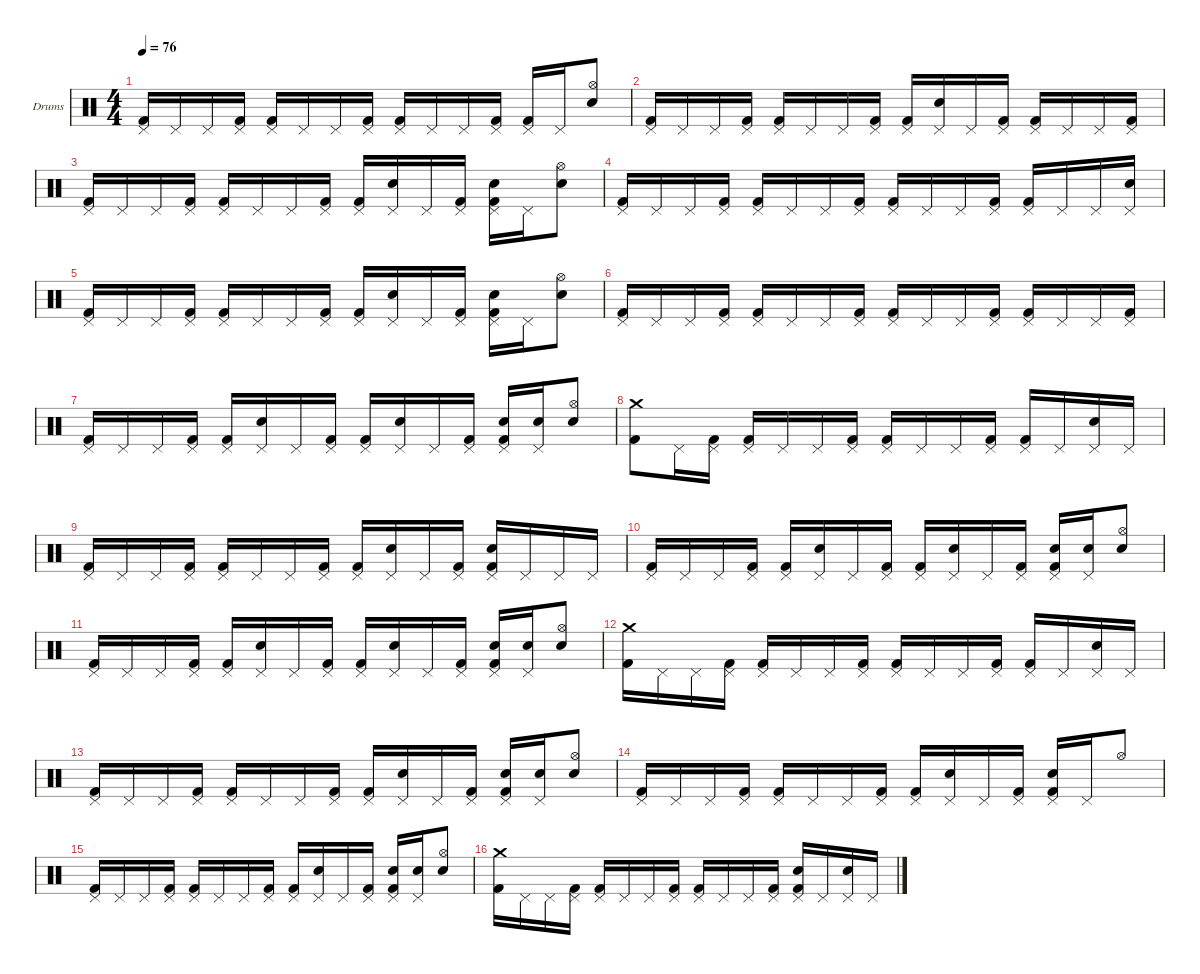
\hideDynamics
\bracketExtendMode nobrackets
\firstSystemTrackNameOrientation horizontal
\otherSystemsTrackNameOrientation horizontal
\track ("Drumkit" "Drums") {instrument percussion}
\staff {score}
\articulation defaults
\ts (4 4)
\tempo 76
\clef neutral
\ks c
("Kick (hit) 2" "Pedal Hi-Hat (hit)").16{dy f beam Up} "Pedal Hi-Hat (hit)".16{beam Up} "Pedal Hi-Hat (hit)".16{beam Up} ("Pedal Hi-Hat (hit)" "Kick (hit) 2").16{beam Up} ("Pedal Hi-Hat (hit)" "Kick (hit) 2").16{beam Up} "Pedal Hi-Hat (hit)".16{beam Up} "Pedal Hi-Hat (hit)".16{beam Up} ("Pedal Hi-Hat (hit)" "Kick (hit) 2").16{beam Up} ("Pedal Hi-Hat (hit)" "Kick (hit) 2").16{beam Up} "Pedal Hi-Hat (hit)".16{beam Up} "Pedal Hi-Hat (hit)".16{beam Up} ("Pedal Hi-Hat (hit)" "Kick (hit) 2").16{beam Up} ("Pedal Hi-Hat (hit)" "Kick (hit) 2").16{beam Up} "Pedal Hi-Hat (hit)".16{beam Up} ("Hi-Hat (open)" "Snare (hit) 2").8{beam Up} |
("Kick (hit) 2" "Pedal Hi-Hat (hit)").16{beam Up} "Pedal Hi-Hat (hit)".16{beam Up} "Pedal Hi-Hat (hit)".16{beam Up} ("Pedal Hi-Hat (hit)" "Kick (hit) 2").16{beam Up} ("Pedal Hi-Hat (hit)" "Kick (hit) 2").16{beam Up} "Pedal Hi-Hat (hit)".16{beam Up} "Pedal Hi-Hat (hit)".16{beam Up} ("Pedal Hi-Hat (hit)" "Kick (hit) 2").16{beam Up} ("Pedal Hi-Hat (hit)" "Kick (hit) 2").16{beam Up} ("Pedal Hi-Hat (hit)" "Snare (hit) 2").16{beam Up} "Pedal Hi-Hat (hit)".16{beam Up} ("Pedal Hi-Hat (hit)" "Kick (hit) 2").16{beam Up} ("Pedal Hi-Hat (hit)" "Kick (hit) 2").16{beam Up} "Pedal Hi-Hat (hit)".16{beam Up} "Pedal Hi-Hat (hit)".16{beam Up} ("Pedal Hi-Hat (hit)" "Kick (hit) 2").16{beam Up} |
("Pedal Hi-Hat (hit)" "Kick (hit) 2").16{beam Up} "Pedal Hi-Hat (hit)".16{beam Up} "Pedal Hi-Hat (hit)".16{beam Up} ("Pedal Hi-Hat (hit)" "Kick (hit) 2").16{beam Up} ("Pedal Hi-Hat (hit)" "Kick (hit) 2").16{beam Up} "Pedal Hi-Hat (hit)".16{beam Up} "Pedal Hi-Hat (hit)".16{beam Up} ("Pedal Hi-Hat (hit)" "Kick (hit) 2").16{beam Up} ("Pedal Hi-Hat (hit)" "Kick (hit) 2").16{beam Up} ("Pedal Hi-Hat (hit)" "Snare (hit) 2").16{beam Up} "Pedal Hi-Hat (hit)".16{beam Up} ("Pedal Hi-Hat (hit)" "Kick (hit) 2").16{beam Up} ("Pedal Hi-Hat (hit)" "Kick (hit) 2" "Snare (hit) 2").16{beam Down} "Pedal Hi-Hat (hit)".16{beam Down} ("Snare (hit) 2" "Hi-Hat (open)").8{beam Down} |
("Kick (hit) 2" "Pedal Hi-Hat (hit)").16{beam Up} "Pedal Hi-Hat (hit)".16{beam Up} "Pedal Hi-Hat (hit)".16{beam Up} ("Pedal Hi-Hat (hit)" "Kick (hit) 2").16{beam Up} ("Pedal Hi-Hat (hit)" "Kick (hit) 2").16{beam Up} "Pedal Hi-Hat (hit)".16{beam Up} "Pedal Hi-Hat (hit)".16{beam Up} ("Pedal Hi-Hat (hit)" "Kick (hit) 2").16{beam Up} ("Pedal Hi-Hat (hit)" "Kick (hit) 2").16{beam Up} "Pedal Hi-Hat (hit)".16{beam Up} "Pedal Hi-Hat (hit)".16{beam Up} ("Pedal Hi-Hat (hit)" "Kick (hit) 2").16{beam Up} ("Pedal Hi-Hat (hit)" "Kick (hit) 2").16{beam Up} "Pedal Hi-Hat (hit)".16{beam Up} "Pedal Hi-Hat (hit)".16{beam Up} ("Pedal Hi-Hat (hit)" "Snare (hit) 2").16{beam Up} |
("Kick (hit) 2" "Pedal Hi-Hat (hit)").16{beam Up} "Pedal Hi-Hat (hit)".16{beam Up} "Pedal Hi-Hat (hit)".16{beam Up} ("Pedal Hi-Hat (hit)" "Kick (hit) 2").16{beam Up} ("Pedal Hi-Hat (hit)" "Kick (hit) 2").16{beam Up} "Pedal Hi-Hat (hit)".16{beam Up} "Pedal Hi-Hat (hit)".16{beam Up} ("Pedal Hi-Hat (hit)" "Kick (hit) 2").16{beam Up} ("Pedal Hi-Hat (hit)" "Kick (hit) 2").16{beam Up} ("Pedal Hi-Hat (hit)" "Snare (hit) 2").16{beam Up} "Pedal Hi-Hat (hit)".16{beam Up} ("Pedal Hi-Hat (hit)" "Kick (hit) 2").16{beam Up} ("Pedal Hi-Hat (hit)" "Kick (hit) 2" "Snare (hit) 2").16{beam Down} "Pedal Hi-Hat (hit)".16{beam Down} ("Hi-Hat (open)" "Snare (hit) 2").8{beam Down} |
("Pedal Hi-Hat (hit)" "Kick (hit) 2").16{beam Up} "Pedal Hi-Hat (hit)".16{beam Up} "Pedal Hi-Hat (hit)".16{beam Up} ("Pedal Hi-Hat (hit)" "Kick (hit) 2").16{beam Up} ("Pedal Hi-Hat (hit)" "Kick (hit) 2").16{beam Up} "Pedal Hi-Hat (hit)".16{beam Up} "Pedal Hi-Hat (hit)".16{beam Up} ("Pedal Hi-Hat (hit)" "Kick (hit) 2").16{beam Up} ("Pedal Hi-Hat (hit)" "Kick (hit) 2").16{beam Up} "Pedal Hi-Hat (hit)".16{beam Up} "Pedal Hi-Hat (hit)".16{beam Up} ("Pedal Hi-Hat (hit)" "Kick (hit) 2").16{beam Up} ("Pedal Hi-Hat (hit)" "Kick (hit) 2").16{beam Up} "Pedal Hi-Hat (hit)".16{beam Up} "Pedal Hi-Hat (hit)".16{beam Up} ("Pedal Hi-Hat (hit)" "Kick (hit) 2").16{beam Up} |
("Pedal Hi-Hat (hit)" "Kick (hit) 2").16{beam Up} "Pedal Hi-Hat (hit)".16{beam Up} "Pedal Hi-Hat (hit)".16{beam Up} ("Pedal Hi-Hat (hit)" "Kick (hit) 2").16{beam Up} ("Pedal Hi-Hat (hit)" "Kick (hit) 2").16{beam Up} ("Pedal Hi-Hat (hit)" "Snare (hit) 2").16{beam Up} "Pedal Hi-Hat (hit)".16{beam Up} ("Pedal Hi-Hat (hit)" "Kick (hit) 2").16{beam Up} ("Pedal Hi-Hat (hit)" "Kick (hit) 2").16{beam Up} ("Pedal Hi-Hat (hit)" "Snare (hit) 2").16{beam Up} "Pedal Hi-Hat (hit)".16{beam Up} ("Pedal Hi-Hat (hit)" "Kick (hit) 2").16{beam Up} ("Pedal Hi-Hat (hit)" "Kick (hit) 2" "Snare (hit) 2").16{beam Up} ("Pedal Hi-Hat (hit)" "Snare (hit) 2").16{beam Up} ("Snare (hit) 2" "Hi-Hat (open)").8{beam Up} |
("Kick (hit) 2" "Crash medium (hit)").8{beam Down} "Pedal Hi-Hat (hit)".16{beam Down} ("Pedal Hi-Hat (hit)" "Kick (hit) 2").16{beam Down} ("Pedal Hi-Hat (hit)" "Kick (hit) 2").16{beam Up} "Pedal Hi-Hat (hit)".16{beam Up} "Pedal Hi-Hat (hit)".16{beam Up} ("Pedal Hi-Hat (hit)" "Kick (hit) 2").16{beam Up} ("Pedal Hi-Hat (hit)" "Kick (hit) 2").16{beam Up} "Pedal Hi-Hat (hit)".16{beam Up} "Pedal Hi-Hat (hit)".16{beam Up} ("Pedal Hi-Hat (hit)" "Kick (hit) 2").16{beam Up} ("Pedal Hi-Hat (hit)" "Kick (hit) 2").16{beam Up} "Pedal Hi-Hat (hit)".16{beam Up} ("Pedal Hi-Hat (hit)" "Snare (hit) 2").16{beam Up} "Pedal Hi-Hat (hit)".16{beam Up} |
("Kick (hit) 2" "Pedal Hi-Hat (hit)").16{beam Up} "Pedal Hi-Hat (hit)".16{beam Up} "Pedal Hi-Hat (hit)".16{beam Up} ("Pedal Hi-Hat (hit)" "Kick (hit) 2").16{beam Up} ("Pedal Hi-Hat (hit)" "Kick (hit) 2").16{beam Up} "Pedal Hi-Hat (hit)".16{beam Up} "Pedal Hi-Hat (hit)".16{beam Up} ("Pedal Hi-Hat (hit)" "Kick (hit) 2").16{beam Up} ("Pedal Hi-Hat (hit)" "Kick (hit) 2").16{beam Up} ("Pedal Hi-Hat (hit)" "Snare (hit) 2").16{beam Up} "Pedal Hi-Hat (hit)".16{beam Up} ("Pedal Hi-Hat (hit)" "Kick (hit) 2").16{beam Up} ("Pedal Hi-Hat (hit)" "Kick (hit) 2" "Snare (hit) 2").16{beam Up} "Pedal Hi-Hat (hit)".16{beam Up} "Pedal Hi-Hat (hit)".16{beam Up} "Pedal Hi-Hat (hit)".16{beam Up} |
("Kick (hit) 2" "Pedal Hi-Hat (hit)").16{beam Up} "Pedal Hi-Hat (hit)".16{beam Up} "Pedal Hi-Hat (hit)".16{beam Up} ("Pedal Hi-Hat (hit)" "Kick (hit) 2").16{beam Up} ("Pedal Hi-Hat (hit)" "Kick (hit) 2").16{beam Up} ("Pedal Hi-Hat (hit)" "Snare (hit) 2").16{beam Up} "Pedal Hi-Hat (hit)".16{beam Up} ("Pedal Hi-Hat (hit)" "Kick (hit) 2").16{beam Up} ("Pedal Hi-Hat (hit)" "Kick (hit) 2").16{beam Up} ("Pedal Hi-Hat (hit)" "Snare (hit) 2").16{beam Up} "Pedal Hi-Hat (hit)".16{beam Up} ("Pedal Hi-Hat (hit)" "Kick (hit) 2").16{beam Up} ("Pedal Hi-Hat (hit)" "Kick (hit) 2" "Snare (hit) 2").16{beam Up} ("Pedal Hi-Hat (hit)" "Snare (hit) 2").16{beam Up} ("Snare (hit) 2" "Hi-Hat (open)").8{beam Up} |
("Kick (hit) 2" "Pedal Hi-Hat (hit)").16{beam Up} "Pedal Hi-Hat (hit)".16{beam Up} "Pedal Hi-Hat (hit)".16{beam Up} ("Pedal Hi-Hat (hit)" "Kick (hit) 2").16{beam Up} ("Pedal Hi-Hat (hit)" "Kick (hit) 2").16{beam Up} ("Pedal Hi-Hat (hit)" "Snare (hit) 2").16{beam Up} "Pedal Hi-Hat (hit)".16{beam Up} ("Pedal Hi-Hat (hit)" "Kick (hit) 2").16{beam Up} ("Pedal Hi-Hat (hit)" "Kick (hit) 2").16{beam Up} ("Pedal Hi-Hat (hit)" "Snare (hit) 2").16{beam Up} "Pedal Hi-Hat (hit)".16{beam Up} ("Pedal Hi-Hat (hit)" "Kick (hit) 2").16{beam Up} ("Pedal Hi-Hat (hit)" "Kick (hit) 2" "Snare (hit) 2").16{beam Up} ("Pedal Hi-Hat (hit)" "Snare (hit) 2").16{beam Up} ("Snare (hit) 2" "Hi-Hat (open)").8{beam Up} |
("Kick (hit) 2" "Crash medium (hit)").16{beam Down} "Pedal Hi-Hat (hit)".16{beam Down} "Pedal Hi-Hat (hit)".16{beam Down} ("Pedal Hi-Hat (hit)" "Kick (hit) 2").16{beam Down} ("Pedal Hi-Hat (hit)" "Kick (hit) 2").16{beam Up} "Pedal Hi-Hat (hit)".16{beam Up} "Pedal Hi-Hat (hit)".16{beam Up} ("Pedal Hi-Hat (hit)" "Kick (hit) 2").16{beam Up} ("Pedal Hi-Hat (hit)" "Kick (hit) 2").16{beam Up} "Pedal Hi-Hat (hit)".16{beam Up} "Pedal Hi-Hat (hit)".16{beam Up} ("Pedal Hi-Hat (hit)" "Kick (hit) 2").16{beam Up} ("Pedal Hi-Hat (hit)" "Kick (hit) 2").16{beam Up} "Pedal Hi-Hat (hit)".16{beam Up} ("Pedal Hi-Hat (hit)" "Snare (hit) 2").16{beam Up} "Pedal Hi-Hat (hit)".16{beam Up} |
("Kick (hit) 2" "Pedal Hi-Hat (hit)").16{beam Up} "Pedal Hi-Hat (hit)".16{beam Up} "Pedal Hi-Hat (hit)".16{beam Up} ("Pedal Hi-Hat (hit)" "Kick (hit) 2").16{beam Up} ("Pedal Hi-Hat (hit)" "Kick (hit) 2").16{beam Up} "Pedal Hi-Hat (hit)".16{beam Up} "Pedal Hi-Hat (hit)".16{beam Up} ("Pedal Hi-Hat (hit)" "Kick (hit) 2").16{beam Up} ("Pedal Hi-Hat (hit)" "Kick (hit) 2").16{beam Up} ("Pedal Hi-Hat (hit)" "Snare (hit) 2").16{beam Up} "Pedal Hi-Hat (hit)".16{beam Up} ("Pedal Hi-Hat (hit)" "Kick (hit) 2").16{beam Up} ("Pedal Hi-Hat (hit)" "Kick (hit) 2" "Snare (hit) 2").16{beam Up} ("Pedal Hi-Hat (hit)" "Snare (hit) 2").16{beam Up} ("Snare (hit) 2" "Hi-Hat (open)").8{beam Up} |
("Pedal Hi-Hat (hit)" "Kick (hit) 2").16{beam Up} "Pedal Hi-Hat (hit)".16{beam Up} "Pedal Hi-Hat (hit)".16{beam Up} ("Pedal Hi-Hat (hit)" "Kick (hit) 2").16{beam Up} ("Pedal Hi-Hat (hit)" "Kick (hit) 2").16{beam Up} "Pedal Hi-Hat (hit)".16{beam Up} "Pedal Hi-Hat (hit)".16{beam Up} ("Pedal Hi-Hat (hit)" "Kick (hit) 2").16{beam Up} ("Pedal Hi-Hat (hit)" "Kick (hit) 2").16{beam Up} ("Pedal Hi-Hat (hit)" "Snare (hit) 2").16{beam Up} "Pedal Hi-Hat (hit)".16{beam Up} ("Pedal Hi-Hat (hit)" "Kick (hit) 2").16{beam Up} ("Pedal Hi-Hat (hit)" "Kick (hit) 2" "Snare (hit) 2").16{beam Up} "Pedal Hi-Hat (hit)".16{beam Up} "Hi-Hat (open)".8{beam Up} |
("Pedal Hi-Hat (hit)" "Kick (hit) 2").16{beam Up} "Pedal Hi-Hat (hit)".16{beam Up} "Pedal Hi-Hat (hit)".16{beam Up} ("Pedal Hi-Hat (hit)" "Kick (hit) 2").16{beam Up} ("Pedal Hi-Hat (hit)" "Kick (hit) 2").16{beam Up} "Pedal Hi-Hat (hit)".16{beam Up} "Pedal Hi-Hat (hit)".16{beam Up} ("Pedal Hi-Hat (hit)" "Kick (hit) 2").16{beam Up} ("Pedal Hi-Hat (hit)" "Kick (hit) 2").16{beam Up} ("Pedal Hi-Hat (hit)" "Snare (hit) 2").16{beam Up} "Pedal Hi-Hat (hit)".16{beam Up} ("Pedal Hi-Hat (hit)" "Kick (hit) 2").16{beam Up} ("Pedal Hi-Hat (hit)" "Kick (hit) 2" "Snare (hit) 2").16{beam Up} ("Pedal Hi-Hat (hit)" "Snare (hit) 2").16{beam Up} ("Snare (hit) 2" "Hi-Hat (open)").8{beam Up} |
("Kick (hit) 2" "Crash medium (hit)").16{beam Down} "Pedal Hi-Hat (hit)".16{beam Down} "Pedal Hi-Hat (hit)".16{beam Down} ("Pedal Hi-Hat (hit)" "Kick (hit) 2").16{beam Down} ("Pedal Hi-Hat (hit)" "Kick (hit) 2").16{beam Up} "Pedal Hi-Hat (hit)".16{beam Up} "Pedal Hi-Hat (hit)".16{beam Up} ("Pedal Hi-Hat (hit)" "Kick (hit) 2").16{beam Up} ("Pedal Hi-Hat (hit)" "Kick (hit) 2").16{beam Up} "Pedal Hi-Hat (hit)".16{beam Up} "Pedal Hi-Hat (hit)".16{beam Up} ("Pedal Hi-Hat (hit)" "Kick (hit) 2").16{beam Up} ("Pedal Hi-Hat (hit)" "Kick (hit) 2" "Snare (hit) 2").16{beam Up} "Pedal Hi-Hat (hit)".16{beam Up} ("Pedal Hi-Hat (hit)" "Snare (hit) 2").16{beam Up} "Pedal Hi-Hat (hit)".16{beam Up}
